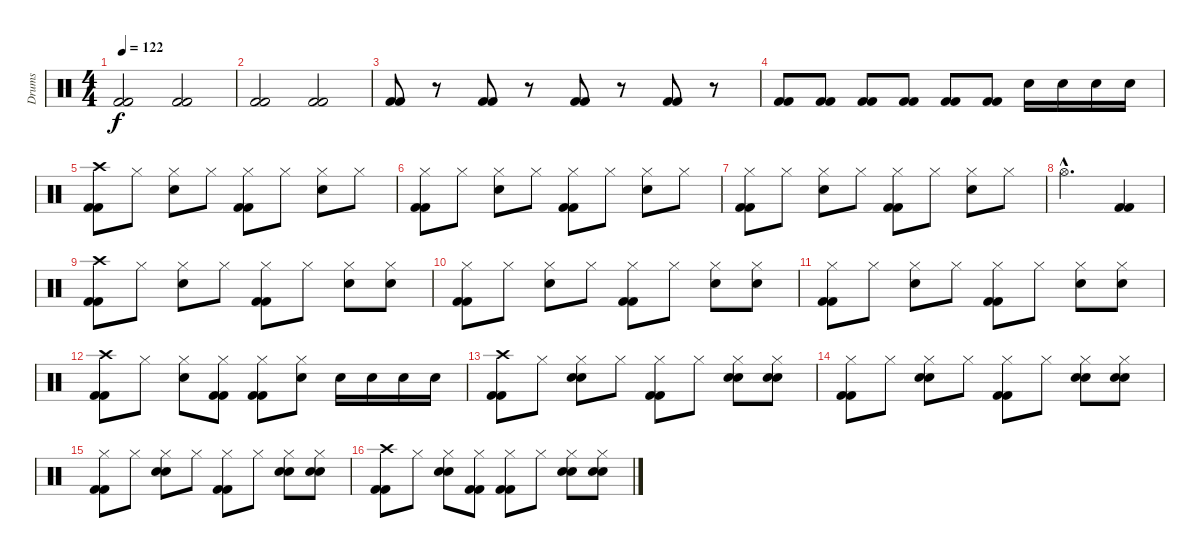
\track ("Drums" "Drums") {instrument percussion}
\staff {score}
\articulation defaults
\ts (4 4)
\tempo 122
\clef neutral
\ks c
("Kick (hit) 2" "Kick (hit) 2").2{dy f} ("Kick (hit) 2" "Kick (hit) 2").2 |
("Kick (hit) 2" "Kick (hit) 2").2 ("Kick (hit) 2" "Kick (hit) 2").2 |
("Kick (hit) 2" "Kick (hit) 2").8 r.8 ("Kick (hit) 2" "Kick (hit) 2").8 r.8 ("Kick (hit) 2" "Kick (hit) 2").8 r.8 ("Kick (hit) 2" "Kick (hit) 2").8 r.8 |
("Kick (hit) 2" "Kick (hit) 2").8 ("Kick (hit) 2" "Kick (hit) 2").8 ("Kick (hit) 2" "Kick (hit) 2").8 ("Kick (hit) 2" "Kick (hit) 2").8 ("Kick (hit) 2" "Kick (hit) 2").8 ("Kick (hit) 2" "Kick (hit) 2").8 "Snare (hit) 2".16 "Snare (hit) 2".16 "Snare (hit) 2".16 "Snare (hit) 2".16 |
("Crash high (hit)" "Kick (hit) 2" "Kick (hit) 2").8 "Hi-Hat (closed)".8 ("Hi-Hat (closed)" "Snare (hit) 2").8 "Hi-Hat (closed)".8 ("Hi-Hat (closed)" "Kick (hit) 2" "Kick (hit) 2").8 "Hi-Hat (closed)".8 ("Hi-Hat (closed)" "Snare (hit) 2").8 "Hi-Hat (closed)".8 |
("Hi-Hat (closed)" "Kick (hit) 2" "Kick (hit) 2").8 "Hi-Hat (closed)".8 ("Hi-Hat (closed)" "Snare (hit) 2").8 "Hi-Hat (closed)".8 ("Hi-Hat (closed)" "Kick (hit) 2" "Kick (hit) 2").8 "Hi-Hat (closed)".8 ("Hi-Hat (closed)" "Snare (hit) 2").8 "Hi-Hat (closed)".8 |
("Hi-Hat (closed)" "Kick (hit) 2" "Kick (hit) 2").8 "Hi-Hat (closed)".8 ("Hi-Hat (closed)" "Snare (hit) 2").8 "Hi-Hat (closed)".8 ("Hi-Hat (closed)" "Kick (hit) 2" "Kick (hit) 2").8 "Hi-Hat (closed)".8 ("Hi-Hat (closed)" "Snare (hit) 2").8 "Hi-Hat (closed)".8 |
"Hi-Hat (open)"{hac}.2{d} ("Kick (hit) 2" "Kick (hit) 2").4 |
("Crash high (hit)" "Kick (hit) 2" "Kick (hit) 2").8 "Hi-Hat (closed)".8 ("Hi-Hat (closed)" "Snare (hit) 2").8 "Hi-Hat (closed)".8 ("Hi-Hat (closed)" "Kick (hit) 2" "Kick (hit) 2").8 "Hi-Hat (closed)".8 ("Hi-Hat (closed)" "Snare (hit) 2").8 ("Hi-Hat (closed)" "Snare (hit) 2").8 |
("Hi-Hat (closed)" "Kick (hit) 2" "Kick (hit) 2").8 "Hi-Hat (closed)".8 ("Hi-Hat (closed)" "Snare (hit) 2").8 "Hi-Hat (closed)".8 ("Hi-Hat (closed)" "Kick (hit) 2" "Kick (hit) 2").8 "Hi-Hat (closed)".8 ("Hi-Hat (closed)" "Snare (hit) 2").8 ("Hi-Hat (closed)" "Snare (hit) 2").8 |
("Hi-Hat (closed)" "Kick (hit) 2" "Kick (hit) 2").8 "Hi-Hat (closed)".8 ("Hi-Hat (closed)" "Snare (hit) 2").8 "Hi-Hat (closed)".8 ("Hi-Hat (closed)" "Kick (hit) 2" "Kick (hit) 2").8 "Hi-Hat (closed)".8 ("Hi-Hat (closed)" "Snare (hit) 2").8 ("Hi-Hat (closed)" "Snare (hit) 2").8 |
("Crash high (hit)" "Kick (hit) 2" "Kick (hit) 2").8 "Hi-Hat (closed)".8 ("Hi-Hat (closed)" "Snare (hit) 2").8 ("Hi-Hat (closed)" "Kick (hit) 2" "Kick (hit) 2").8 ("Hi-Hat (closed)" "Kick (hit) 2" "Kick (hit) 2").8 ("Hi-Hat (closed)" "Snare (hit) 2").8 "Snare (hit) 2".16 "Snare (hit) 2".16 "Snare (hit) 2".16 "Snare (hit) 2".16 |
("Crash high (hit)" "Kick (hit) 2" "Kick (hit) 2").8 "Hi-Hat (closed)".8 ("Hi-Hat (closed)" "Hand Clap (hit)" "Snare (hit) 2").8 "Hi-Hat (closed)".8 ("Hi-Hat (closed)" "Kick (hit) 2" "Kick (hit) 2").8 "Hi-Hat (closed)".8 ("Hi-Hat (closed)" "Hand Clap (hit)" "Snare (hit) 2").8 ("Hi-Hat (closed)" "Hand Clap (hit)" "Snare (hit) 2").8 |
("Hi-Hat (closed)" "Kick (hit) 2" "Kick (hit) 2").8 "Hi-Hat (closed)".8 ("Hi-Hat (closed)" "Hand Clap (hit)" "Snare (hit) 2").8 "Hi-Hat (closed)".8 ("Hi-Hat (closed)" "Kick (hit) 2" "Kick (hit) 2").8 "Hi-Hat (closed)".8 ("Hi-Hat (closed)" "Hand Clap (hit)" "Snare (hit) 2").8 ("Hi-Hat (closed)" "Hand Clap (hit)" "Snare (hit) 2").8 |
("Hi-Hat (closed)" "Kick (hit) 2" "Kick (hit) 2").8 "Hi-Hat (closed)".8 ("Hi-Hat (closed)" "Hand Clap (hit)" "Snare (hit) 2").8 "Hi-Hat (closed)".8 ("Hi-Hat (closed)" "Kick (hit) 2" "Kick (hit) 2").8 "Hi-Hat (closed)".8 ("Hi-Hat (closed)" "Hand Clap (hit)" "Snare (hit) 2").8 ("Hi-Hat (closed)" "Hand Clap (hit)" "Snare (hit) 2").8 |
("Crash high (hit)" "Kick (hit) 2" "Kick (hit) 2").8 "Hi-Hat (closed)".8 ("Hi-Hat (closed)" "Hand Clap (hit)" "Snare (hit) 2").8 ("Hi-Hat (closed)" "Kick (hit) 2" "Kick (hit) 2").8 ("Hi-Hat (closed)" "Kick (hit) 2" "Kick (hit) 2").8 "Hi-Hat (closed)".8 ("Hi-Hat (closed)" "Hand Clap (hit)" "Snare (hit) 2").8 ("Hi-Hat (closed)" "Hand Clap (hit)" "Snare (hit) 2").8
